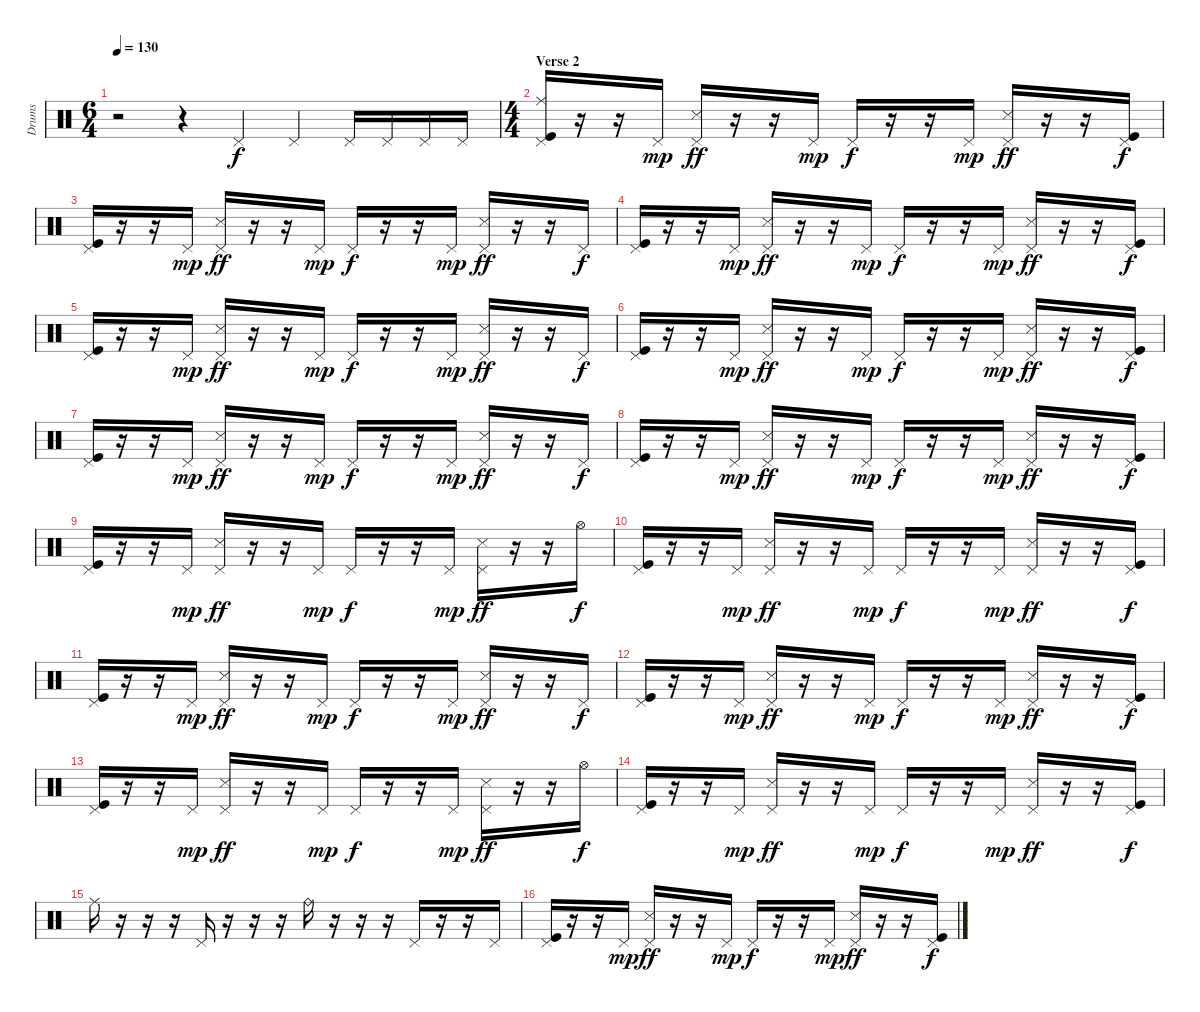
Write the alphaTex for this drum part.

\track ("Drums" "Drums") {instrument percussion}
\staff {score}
\articulation defaults
\ts (6 4)
\tempo 130
\clef neutral
\ks c
r.2{dy f} r.4 "Pedal Hi-Hat (hit)".4 "Pedal Hi-Hat (hit)".4 "Pedal Hi-Hat (hit)".16 "Pedal Hi-Hat (hit)".16 "Pedal Hi-Hat (hit)".16 "Pedal Hi-Hat (hit)".16 |
\ts (4 4)
\section ("" "Verse 2")
("Pedal Hi-Hat (hit)" "Ride (middle)" "Kick (hit)").16 r.16 r.16 "Pedal Hi-Hat (hit)".16{dy mp} ("Pedal Hi-Hat (hit)" "Snare (side stick) 3").16{dy ff} r.16 r.16 "Pedal Hi-Hat (hit)".16{dy mp} "Pedal Hi-Hat (hit)".16{dy f} r.16 r.16 "Pedal Hi-Hat (hit)".16{dy mp} ("Pedal Hi-Hat (hit)" "Snare (side stick) 3").16{dy ff} r.16 r.16 ("Pedal Hi-Hat (hit)" "Kick (hit)").16{dy f} |
("Pedal Hi-Hat (hit)" "Kick (hit)").16 r.16 r.16 "Pedal Hi-Hat (hit)".16{dy mp} ("Pedal Hi-Hat (hit)" "Snare (side stick) 3").16{dy ff} r.16 r.16 "Pedal Hi-Hat (hit)".16{dy mp} "Pedal Hi-Hat (hit)".16{dy f} r.16 r.16 "Pedal Hi-Hat (hit)".16{dy mp} ("Pedal Hi-Hat (hit)" "Snare (side stick) 3").16{dy ff} r.16 r.16 "Pedal Hi-Hat (hit)".16{dy f} |
("Pedal Hi-Hat (hit)" "Kick (hit)").16 r.16 r.16 "Pedal Hi-Hat (hit)".16{dy mp} ("Pedal Hi-Hat (hit)" "Snare (side stick) 3").16{dy ff} r.16 r.16 "Pedal Hi-Hat (hit)".16{dy mp} "Pedal Hi-Hat (hit)".16{dy f} r.16 r.16 "Pedal Hi-Hat (hit)".16{dy mp} ("Pedal Hi-Hat (hit)" "Snare (side stick) 3").16{dy ff} r.16 r.16 ("Pedal Hi-Hat (hit)" "Kick (hit)").16{dy f} |
("Pedal Hi-Hat (hit)" "Kick (hit)").16 r.16 r.16 "Pedal Hi-Hat (hit)".16{dy mp} ("Pedal Hi-Hat (hit)" "Snare (side stick) 3").16{dy ff} r.16 r.16 "Pedal Hi-Hat (hit)".16{dy mp} "Pedal Hi-Hat (hit)".16{dy f} r.16 r.16 "Pedal Hi-Hat (hit)".16{dy mp} ("Pedal Hi-Hat (hit)" "Snare (side stick) 3").16{dy ff} r.16 r.16 "Pedal Hi-Hat (hit)".16{dy f} |
("Pedal Hi-Hat (hit)" "Kick (hit)").16 r.16 r.16 "Pedal Hi-Hat (hit)".16{dy mp} ("Pedal Hi-Hat (hit)" "Snare (side stick) 3").16{dy ff} r.16 r.16 "Pedal Hi-Hat (hit)".16{dy mp} "Pedal Hi-Hat (hit)".16{dy f} r.16 r.16 "Pedal Hi-Hat (hit)".16{dy mp} ("Pedal Hi-Hat (hit)" "Snare (side stick) 3").16{dy ff} r.16 r.16 ("Pedal Hi-Hat (hit)" "Kick (hit)").16{dy f} |
("Pedal Hi-Hat (hit)" "Kick (hit)").16 r.16 r.16 "Pedal Hi-Hat (hit)".16{dy mp} ("Pedal Hi-Hat (hit)" "Snare (side stick) 3").16{dy ff} r.16 r.16 "Pedal Hi-Hat (hit)".16{dy mp} "Pedal Hi-Hat (hit)".16{dy f} r.16 r.16 "Pedal Hi-Hat (hit)".16{dy mp} ("Pedal Hi-Hat (hit)" "Snare (side stick) 3").16{dy ff} r.16 r.16 "Pedal Hi-Hat (hit)".16{dy f} |
("Pedal Hi-Hat (hit)" "Kick (hit)").16 r.16 r.16 "Pedal Hi-Hat (hit)".16{dy mp} ("Pedal Hi-Hat (hit)" "Snare (side stick) 3").16{dy ff} r.16 r.16 "Pedal Hi-Hat (hit)".16{dy mp} "Pedal Hi-Hat (hit)".16{dy f} r.16 r.16 "Pedal Hi-Hat (hit)".16{dy mp} ("Pedal Hi-Hat (hit)" "Snare (side stick) 3").16{dy ff} r.16 r.16 ("Pedal Hi-Hat (hit)" "Kick (hit)").16{dy f} |
("Pedal Hi-Hat (hit)" "Kick (hit)").16 r.16 r.16 "Pedal Hi-Hat (hit)".16{dy mp} ("Pedal Hi-Hat (hit)" "Snare (side stick) 3").16{dy ff} r.16 r.16 "Pedal Hi-Hat (hit)".16{dy mp} "Pedal Hi-Hat (hit)".16{dy f} r.16 r.16 "Pedal Hi-Hat (hit)".16{dy mp} ("Pedal Hi-Hat (hit)" "Snare (side stick) 3").16{dy ff} r.16 r.16 "Hi-Hat (open)".16{dy f} |
("Pedal Hi-Hat (hit)" "Kick (hit)").16 r.16 r.16 "Pedal Hi-Hat (hit)".16{dy mp} ("Pedal Hi-Hat (hit)" "Snare (side stick) 3").16{dy ff} r.16 r.16 "Pedal Hi-Hat (hit)".16{dy mp} "Pedal Hi-Hat (hit)".16{dy f} r.16 r.16 "Pedal Hi-Hat (hit)".16{dy mp} ("Pedal Hi-Hat (hit)" "Snare (side stick) 3").16{dy ff} r.16 r.16 ("Pedal Hi-Hat (hit)" "Kick (hit)").16{dy f} |
("Pedal Hi-Hat (hit)" "Kick (hit)").16 r.16 r.16 "Pedal Hi-Hat (hit)".16{dy mp} ("Pedal Hi-Hat (hit)" "Snare (side stick) 3").16{dy ff} r.16 r.16 "Pedal Hi-Hat (hit)".16{dy mp} "Pedal Hi-Hat (hit)".16{dy f} r.16 r.16 "Pedal Hi-Hat (hit)".16{dy mp} ("Pedal Hi-Hat (hit)" "Snare (side stick) 3").16{dy ff} r.16 r.16 "Pedal Hi-Hat (hit)".16{dy f} |
("Pedal Hi-Hat (hit)" "Kick (hit)").16 r.16 r.16 "Pedal Hi-Hat (hit)".16{dy mp} ("Pedal Hi-Hat (hit)" "Snare (side stick) 3").16{dy ff} r.16 r.16 "Pedal Hi-Hat (hit)".16{dy mp} "Pedal Hi-Hat (hit)".16{dy f} r.16 r.16 "Pedal Hi-Hat (hit)".16{dy mp} ("Pedal Hi-Hat (hit)" "Snare (side stick) 3").16{dy ff} r.16 r.16 ("Pedal Hi-Hat (hit)" "Kick (hit)").16{dy f} |
("Pedal Hi-Hat (hit)" "Kick (hit)").16 r.16 r.16 "Pedal Hi-Hat (hit)".16{dy mp} ("Pedal Hi-Hat (hit)" "Snare (side stick) 3").16{dy ff} r.16 r.16 "Pedal Hi-Hat (hit)".16{dy mp} "Pedal Hi-Hat (hit)".16{dy f} r.16 r.16 "Pedal Hi-Hat (hit)".16{dy mp} ("Pedal Hi-Hat (hit)" "Snare (side stick) 3").16{dy ff} r.16 r.16 "Hi-Hat (open)".16{dy f} |
("Pedal Hi-Hat (hit)" "Kick (hit)").16 r.16 r.16 "Pedal Hi-Hat (hit)".16{dy mp} ("Pedal Hi-Hat (hit)" "Snare (side stick) 3").16{dy ff} r.16 r.16 "Pedal Hi-Hat (hit)".16{dy mp} "Pedal Hi-Hat (hit)".16{dy f} r.16 r.16 "Pedal Hi-Hat (hit)".16{dy mp} ("Pedal Hi-Hat (hit)" "Snare (side stick) 3").16{dy ff} r.16 r.16 ("Pedal Hi-Hat (hit)" "Kick (hit)").16{dy f} |
"Ride (middle)".16 r.16 r.16 r.16 "Pedal Hi-Hat (hit)".16 r.16 r.16 r.16 "Ride (bell)".16 r.16 r.16 r.16 "Pedal Hi-Hat (hit)".16 r.16 r.16 "Pedal Hi-Hat (hit)".16 |
("Pedal Hi-Hat (hit)" "Kick (hit)").16 r.16 r.16 "Pedal Hi-Hat (hit)".16{dy mp} ("Pedal Hi-Hat (hit)" "Snare (side stick) 3").16{dy ff} r.16 r.16 "Pedal Hi-Hat (hit)".16{dy mp} "Pedal Hi-Hat (hit)".16{dy f} r.16 r.16 "Pedal Hi-Hat (hit)".16{dy mp} ("Pedal Hi-Hat (hit)" "Snare (side stick) 3").16{dy ff} r.16 r.16 ("Pedal Hi-Hat (hit)" "Kick (hit)").16{dy f}
